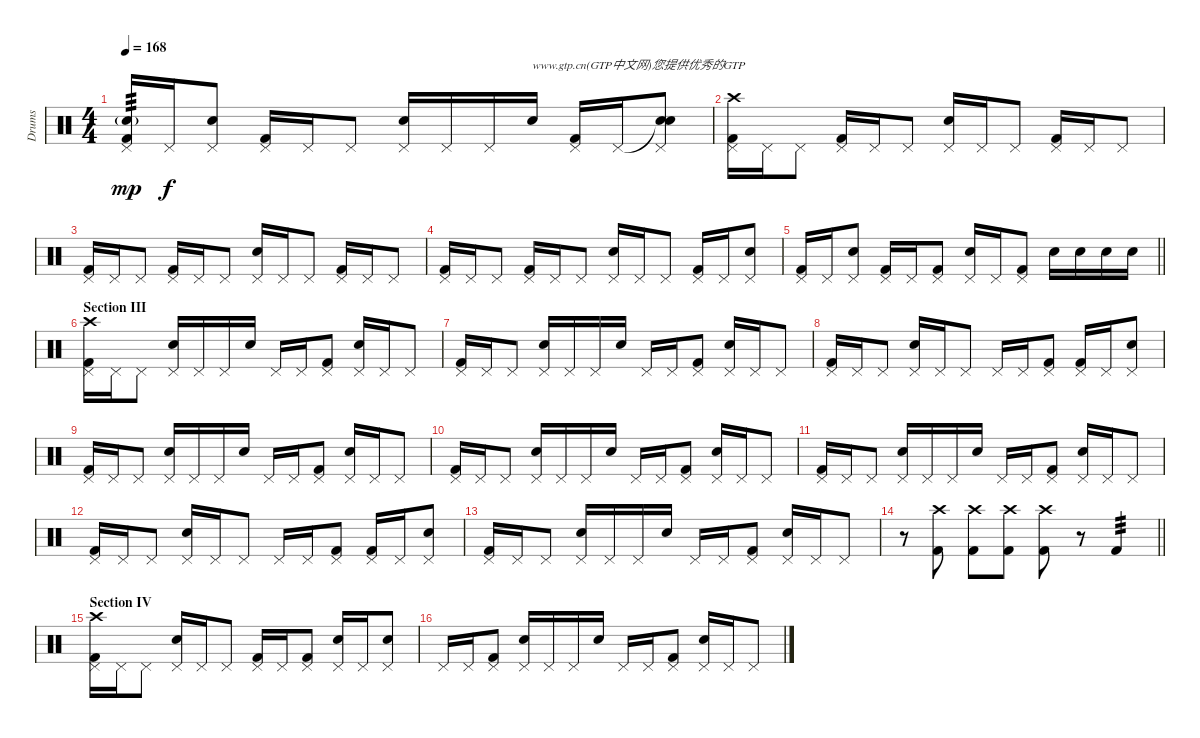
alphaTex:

\track ("Drums" "Drums") {instrument percussion}
\staff {score}
\articulation defaults
\ts (4 4)
\tempo 168
\clef neutral
\ks c
("Electric Snare (hit)"{g} "Pedal Hi-Hat (hit)" "Kick (hit) 2").16{tp 3 dy mp} "Pedal Hi-Hat (hit)".16{dy f} ("Pedal Hi-Hat (hit)" "Snare (hit) 2").8 ("Pedal Hi-Hat (hit)" "Kick (hit) 2").16 "Pedal Hi-Hat (hit)".16 "Pedal Hi-Hat (hit)".8 ("Pedal Hi-Hat (hit)" "Snare (hit) 2").16 "Pedal Hi-Hat (hit)".16 "Pedal Hi-Hat (hit)".16 "Snare (hit) 2".16{txt "www.gtp.cn(GTP中文网)您提供优秀的GTP"} ("Pedal Hi-Hat (hit)" "Kick (hit) 2").16 "Pedal Hi-Hat (hit)".16 ("Snare (hit)"{t} "Pedal Hi-Hat (hit)" "Snare (hit) 2").8 |
("Crash high (hit)" "Pedal Hi-Hat (hit)" "Kick (hit) 2").16 "Pedal Hi-Hat (hit)".16 "Pedal Hi-Hat (hit)".8 ("Pedal Hi-Hat (hit)" "Kick (hit) 2").16 "Pedal Hi-Hat (hit)".16 "Pedal Hi-Hat (hit)".8 ("Pedal Hi-Hat (hit)" "Snare (hit) 2").16 "Pedal Hi-Hat (hit)".16 "Pedal Hi-Hat (hit)".8 ("Pedal Hi-Hat (hit)" "Kick (hit) 2").16 "Pedal Hi-Hat (hit)".16 "Pedal Hi-Hat (hit)".8 |
("Pedal Hi-Hat (hit)" "Kick (hit) 2").16 "Pedal Hi-Hat (hit)".16 "Pedal Hi-Hat (hit)".8 ("Pedal Hi-Hat (hit)" "Kick (hit) 2").16 "Pedal Hi-Hat (hit)".16 "Pedal Hi-Hat (hit)".8 ("Pedal Hi-Hat (hit)" "Snare (hit) 2").16 "Pedal Hi-Hat (hit)".16 "Pedal Hi-Hat (hit)".8 ("Pedal Hi-Hat (hit)" "Kick (hit) 2").16 "Pedal Hi-Hat (hit)".16 "Pedal Hi-Hat (hit)".8 |
("Pedal Hi-Hat (hit)" "Kick (hit) 2").16 "Pedal Hi-Hat (hit)".16 "Pedal Hi-Hat (hit)".8 ("Pedal Hi-Hat (hit)" "Kick (hit) 2").16 "Pedal Hi-Hat (hit)".16 "Pedal Hi-Hat (hit)".8 ("Pedal Hi-Hat (hit)" "Snare (hit) 2").16 "Pedal Hi-Hat (hit)".16 "Pedal Hi-Hat (hit)".8 ("Pedal Hi-Hat (hit)" "Kick (hit) 2").16 "Pedal Hi-Hat (hit)".16 ("Pedal Hi-Hat (hit)" "Snare (hit) 2").8 |
\barLineRight lightlight
("Pedal Hi-Hat (hit)" "Kick (hit) 2").16 "Pedal Hi-Hat (hit)".16 ("Pedal Hi-Hat (hit)" "Snare (hit) 2").8 ("Pedal Hi-Hat (hit)" "Kick (hit) 2").16 "Pedal Hi-Hat (hit)".16 ("Pedal Hi-Hat (hit)" "Kick (hit) 2").8 ("Pedal Hi-Hat (hit)" "Snare (hit) 2").16 "Pedal Hi-Hat (hit)".16 ("Pedal Hi-Hat (hit)" "Kick (hit) 2").8 "Snare (hit) 2".16 "Snare (hit) 2".16 "Snare (hit) 2".16 "Snare (hit) 2".16 |
\section ("" "Section III")
("Crash high (hit)" "Pedal Hi-Hat (hit)" "Kick (hit) 2").16 "Pedal Hi-Hat (hit)".16 "Pedal Hi-Hat (hit)".8 ("Pedal Hi-Hat (hit)" "Snare (hit) 2").16 "Pedal Hi-Hat (hit)".16 "Pedal Hi-Hat (hit)".16 "Snare (hit) 2".16 "Pedal Hi-Hat (hit)".16 "Pedal Hi-Hat (hit)".16 ("Pedal Hi-Hat (hit)" "Kick (hit) 2").8 ("Pedal Hi-Hat (hit)" "Snare (hit) 2").16 "Pedal Hi-Hat (hit)".16 "Pedal Hi-Hat (hit)".8 |
("Pedal Hi-Hat (hit)" "Kick (hit) 2").16 "Pedal Hi-Hat (hit)".16 "Pedal Hi-Hat (hit)".8 ("Pedal Hi-Hat (hit)" "Snare (hit) 2").16 "Pedal Hi-Hat (hit)".16 "Pedal Hi-Hat (hit)".16 "Snare (hit) 2".16 "Pedal Hi-Hat (hit)".16 "Pedal Hi-Hat (hit)".16 ("Pedal Hi-Hat (hit)" "Kick (hit) 2").8 ("Pedal Hi-Hat (hit)" "Snare (hit) 2").16 "Pedal Hi-Hat (hit)".16 "Pedal Hi-Hat (hit)".8 |
("Pedal Hi-Hat (hit)" "Kick (hit) 2").16 "Pedal Hi-Hat (hit)".16 "Pedal Hi-Hat (hit)".8 ("Pedal Hi-Hat (hit)" "Snare (hit) 2").16 "Pedal Hi-Hat (hit)".16 "Pedal Hi-Hat (hit)".8 "Pedal Hi-Hat (hit)".16 "Pedal Hi-Hat (hit)".16 ("Pedal Hi-Hat (hit)" "Kick (hit) 2").8 ("Pedal Hi-Hat (hit)" "Kick (hit) 2").16 "Pedal Hi-Hat (hit)".16 ("Pedal Hi-Hat (hit)" "Snare (hit) 2").8 |
("Pedal Hi-Hat (hit)" "Kick (hit) 2").16 "Pedal Hi-Hat (hit)".16 "Pedal Hi-Hat (hit)".8 ("Pedal Hi-Hat (hit)" "Snare (hit) 2").16 "Pedal Hi-Hat (hit)".16 "Pedal Hi-Hat (hit)".16 "Snare (hit) 2".16 "Pedal Hi-Hat (hit)".16 "Pedal Hi-Hat (hit)".16 ("Pedal Hi-Hat (hit)" "Kick (hit) 2").8 ("Pedal Hi-Hat (hit)" "Snare (hit) 2").16 "Pedal Hi-Hat (hit)".16 "Pedal Hi-Hat (hit)".8 |
("Pedal Hi-Hat (hit)" "Kick (hit) 2").16 "Pedal Hi-Hat (hit)".16 "Pedal Hi-Hat (hit)".8 ("Pedal Hi-Hat (hit)" "Snare (hit) 2").16 "Pedal Hi-Hat (hit)".16 "Pedal Hi-Hat (hit)".16 "Snare (hit) 2".16 "Pedal Hi-Hat (hit)".16 "Pedal Hi-Hat (hit)".16 ("Pedal Hi-Hat (hit)" "Kick (hit) 2").8 ("Pedal Hi-Hat (hit)" "Snare (hit) 2").16 "Pedal Hi-Hat (hit)".16 "Pedal Hi-Hat (hit)".8 |
("Pedal Hi-Hat (hit)" "Kick (hit) 2").16 "Pedal Hi-Hat (hit)".16 "Pedal Hi-Hat (hit)".8 ("Pedal Hi-Hat (hit)" "Snare (hit) 2").16 "Pedal Hi-Hat (hit)".16 "Pedal Hi-Hat (hit)".16 "Snare (hit) 2".16 "Pedal Hi-Hat (hit)".16 "Pedal Hi-Hat (hit)".16 ("Pedal Hi-Hat (hit)" "Kick (hit) 2").8 ("Pedal Hi-Hat (hit)" "Snare (hit) 2").16 "Pedal Hi-Hat (hit)".16 "Pedal Hi-Hat (hit)".8 |
("Pedal Hi-Hat (hit)" "Kick (hit) 2").16 "Pedal Hi-Hat (hit)".16 "Pedal Hi-Hat (hit)".8 ("Pedal Hi-Hat (hit)" "Snare (hit) 2").16 "Pedal Hi-Hat (hit)".16 "Pedal Hi-Hat (hit)".8 "Pedal Hi-Hat (hit)".16 "Pedal Hi-Hat (hit)".16 ("Pedal Hi-Hat (hit)" "Kick (hit) 2").8 ("Pedal Hi-Hat (hit)" "Kick (hit) 2").16 "Pedal Hi-Hat (hit)".16 ("Pedal Hi-Hat (hit)" "Snare (hit) 2").8 |
("Pedal Hi-Hat (hit)" "Kick (hit) 2").16 "Pedal Hi-Hat (hit)".16 "Pedal Hi-Hat (hit)".8 ("Pedal Hi-Hat (hit)" "Snare (hit) 2").16 "Pedal Hi-Hat (hit)".16 "Pedal Hi-Hat (hit)".16 "Snare (hit) 2".16 "Pedal Hi-Hat (hit)".16 "Pedal Hi-Hat (hit)".16 ("Pedal Hi-Hat (hit)" "Kick (hit) 2").8 ("Pedal Hi-Hat (hit)" "Snare (hit) 2").16 "Pedal Hi-Hat (hit)".16 "Pedal Hi-Hat (hit)".8 |
\barLineRight lightlight
r.8 ("Crash high (hit)" "Kick (hit) 2").8 ("Crash high (hit)" "Kick (hit) 2").8 ("Crash high (hit)" "Kick (hit) 2").8 ("Crash high (hit)" "Kick (hit) 2").8 r.8 "Kick (hit) 2".4{tp 3} |
\section ("" "Section IV")
("Crash high (hit)" "Pedal Hi-Hat (hit)" "Kick (hit) 2").16 "Pedal Hi-Hat (hit)".16 "Pedal Hi-Hat (hit)".8 ("Pedal Hi-Hat (hit)" "Snare (hit) 2").16 "Pedal Hi-Hat (hit)".16 "Pedal Hi-Hat (hit)".8 ("Pedal Hi-Hat (hit)" "Kick (hit) 2").16 "Pedal Hi-Hat (hit)".16 ("Pedal Hi-Hat (hit)" "Kick (hit) 2").8 ("Pedal Hi-Hat (hit)" "Snare (hit) 2").16 "Pedal Hi-Hat (hit)".16 ("Pedal Hi-Hat (hit)" "Snare (hit) 2").8 |
"Pedal Hi-Hat (hit)".16 "Pedal Hi-Hat (hit)".16 ("Pedal Hi-Hat (hit)" "Kick (hit) 2").8 ("Pedal Hi-Hat (hit)" "Snare (hit) 2").16 "Pedal Hi-Hat (hit)".16 "Pedal Hi-Hat (hit)".16 "Snare (hit) 2".16 "Pedal Hi-Hat (hit)".16 "Pedal Hi-Hat (hit)".16 ("Pedal Hi-Hat (hit)" "Kick (hit) 2").8 ("Pedal Hi-Hat (hit)" "Snare (hit) 2").16 "Pedal Hi-Hat (hit)".16 "Pedal Hi-Hat (hit)".8
